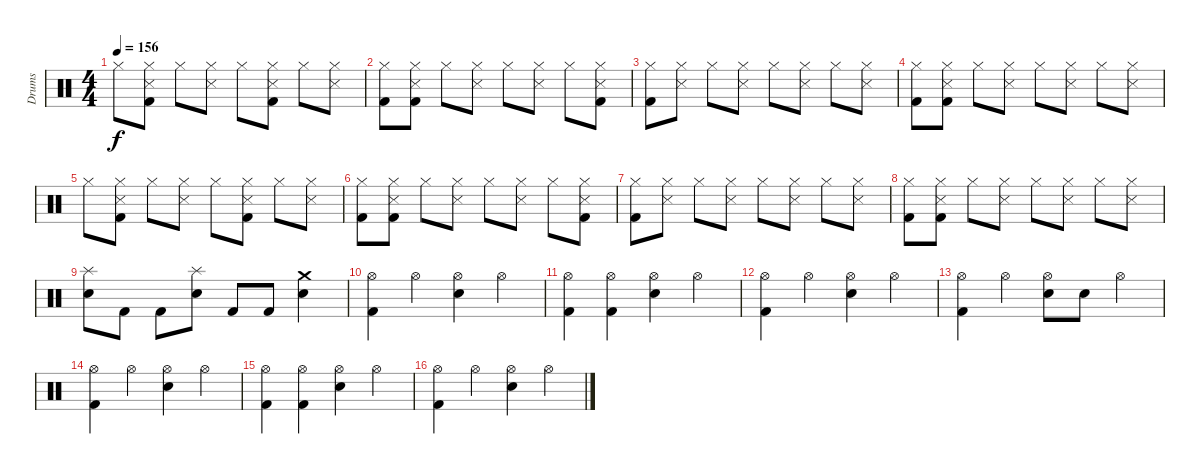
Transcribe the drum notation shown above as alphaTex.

\track ("Drums" "Drums") {instrument percussion}
\staff {score}
\articulation defaults
\ts (4 4)
\tempo 156
\clef neutral
\ks c "Hi-Hat (closed)".8{dy f}
("Hi-Hat (closed)" "Snare (side stick) 3" "Kick (hit) 2").8 "Hi-Hat (closed)".8 ("Hi-Hat (closed)" "Snare (side stick) 3").8 "Hi-Hat (closed)".8 ("Hi-Hat (closed)" "Snare (side stick) 3" "Kick (hit) 2").8 "Hi-Hat (closed)".8 ("Hi-Hat (closed)" "Snare (side stick) 3").8 |
("Hi-Hat (closed)" "Kick (hit) 2").8 ("Hi-Hat (closed)" "Snare (side stick) 3" "Kick (hit) 2").8 "Hi-Hat (closed)".8 ("Hi-Hat (closed)" "Snare (side stick) 3").8 "Hi-Hat (closed)".8 ("Hi-Hat (closed)" "Snare (side stick) 3").8 "Hi-Hat (closed)".8 ("Hi-Hat (closed)" "Snare (side stick) 3" "Kick (hit) 2").8 |
("Hi-Hat (closed)" "Kick (hit) 2").8 ("Hi-Hat (closed)" "Snare (side stick) 3").8 "Hi-Hat (closed)".8 ("Hi-Hat (closed)" "Snare (side stick) 3").8 "Hi-Hat (closed)".8 ("Hi-Hat (closed)" "Snare (side stick) 3").8 "Hi-Hat (closed)".8 ("Hi-Hat (closed)" "Snare (side stick) 3").8 |
("Hi-Hat (closed)" "Kick (hit) 2").8 ("Hi-Hat (closed)" "Snare (side stick) 3" "Kick (hit) 2").8 "Hi-Hat (closed)".8 ("Hi-Hat (closed)" "Snare (side stick) 3").8 "Hi-Hat (closed)".8 ("Hi-Hat (closed)" "Snare (side stick) 3").8 "Hi-Hat (closed)".8 ("Hi-Hat (closed)" "Snare (side stick) 3").8 |
"Hi-Hat (closed)".8 ("Hi-Hat (closed)" "Snare (side stick) 3" "Kick (hit) 2").8 "Hi-Hat (closed)".8 ("Hi-Hat (closed)" "Snare (side stick) 3").8 "Hi-Hat (closed)".8 ("Hi-Hat (closed)" "Snare (side stick) 3" "Kick (hit) 2").8 "Hi-Hat (closed)".8 ("Hi-Hat (closed)" "Snare (side stick) 3").8 |
("Hi-Hat (closed)" "Kick (hit) 2").8 ("Hi-Hat (closed)" "Snare (side stick) 3" "Kick (hit) 2").8 "Hi-Hat (closed)".8 ("Hi-Hat (closed)" "Snare (side stick) 3").8 "Hi-Hat (closed)".8 ("Hi-Hat (closed)" "Snare (side stick) 3").8 "Hi-Hat (closed)".8 ("Hi-Hat (closed)" "Snare (side stick) 3" "Kick (hit) 2").8 |
("Hi-Hat (closed)" "Kick (hit) 2").8 ("Hi-Hat (closed)" "Snare (side stick) 3").8 "Hi-Hat (closed)".8 ("Hi-Hat (closed)" "Snare (side stick) 3").8 "Hi-Hat (closed)".8 ("Hi-Hat (closed)" "Snare (side stick) 3").8 "Hi-Hat (closed)".8 ("Hi-Hat (closed)" "Snare (side stick) 3").8 |
("Hi-Hat (closed)" "Kick (hit) 2").8 ("Hi-Hat (closed)" "Snare (side stick) 3" "Kick (hit) 2").8 "Hi-Hat (closed)".8 ("Hi-Hat (closed)" "Snare (side stick) 3").8 "Hi-Hat (closed)".8 ("Hi-Hat (closed)" "Snare (side stick) 3").8 "Hi-Hat (closed)".8 ("Hi-Hat (closed)" "Snare (side stick) 3").8 |
("Splash (hit)" "Electric Snare (hit)").8 "Kick (hit) 2".8 "Kick (hit) 2".8 ("Splash (hit)" "Electric Snare (hit)").8 "Kick (hit) 2".8 "Kick (hit) 2".8 ("Crash medium (hit)" "Electric Snare (hit)").4 |
("Hi-Hat (open)" "Kick (hit) 2").4 "Hi-Hat (open)".4 ("Hi-Hat (open)" "Electric Snare (hit)").4 "Hi-Hat (open)".4 |
("Hi-Hat (open)" "Kick (hit) 2").4 ("Hi-Hat (open)" "Kick (hit) 2").4 ("Hi-Hat (open)" "Electric Snare (hit)").4 "Hi-Hat (open)".4 |
("Hi-Hat (open)" "Kick (hit) 2").4 "Hi-Hat (open)".4 ("Hi-Hat (open)" "Electric Snare (hit)").4 "Hi-Hat (open)".4 |
("Hi-Hat (open)" "Kick (hit) 2").4 "Hi-Hat (open)".4 ("Hi-Hat (open)" "Electric Snare (hit)").8 "Electric Snare (hit)".8 "Hi-Hat (open)".4 |
("Hi-Hat (open)" "Kick (hit) 2").4 "Hi-Hat (open)".4 ("Hi-Hat (open)" "Electric Snare (hit)").4 "Hi-Hat (open)".4 |
("Hi-Hat (open)" "Kick (hit) 2").4 ("Hi-Hat (open)" "Kick (hit) 2").4 ("Hi-Hat (open)" "Electric Snare (hit)").4 "Hi-Hat (open)".4 |
("Hi-Hat (open)" "Kick (hit) 2").4 "Hi-Hat (open)".4 ("Hi-Hat (open)" "Electric Snare (hit)").4 "Hi-Hat (open)".4
